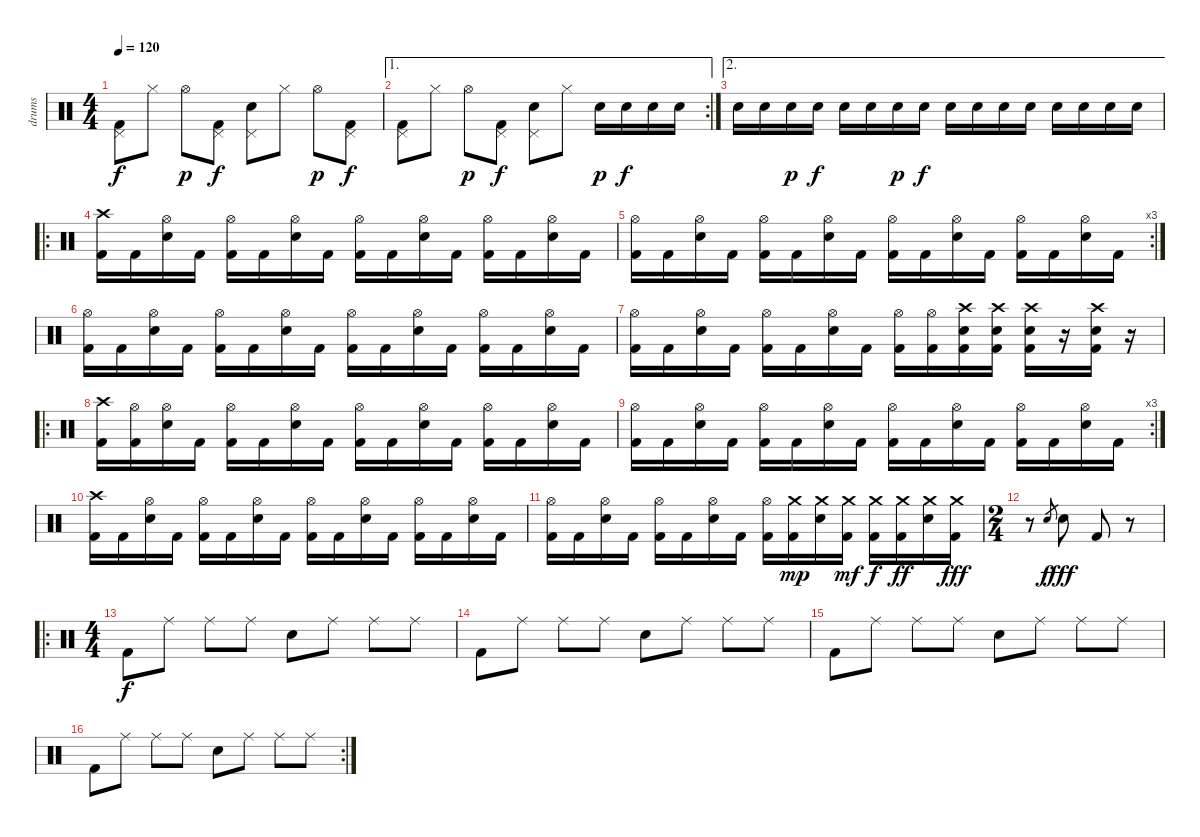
\track ("drums" "drums") {instrument percussion}
\staff {score}
\articulation defaults
\ts (4 4)
\tempo 120
\clef neutral
\ks c
("Pedal Hi-Hat (hit)" "Kick (hit) 2").8{dy f} "Hi-Hat (closed)".8 "Hi-Hat (open)".8{dy p} ("Pedal Hi-Hat (hit)" "Kick (hit) 2").8{dy f} ("Pedal Hi-Hat (hit)" "Electric Snare (hit)").8 "Hi-Hat (closed)".8 "Hi-Hat (open)".8{dy p} ("Pedal Hi-Hat (hit)" "Kick (hit) 2").8{dy f} |
\ae 1
\rc 2
("Pedal Hi-Hat (hit)" "Kick (hit) 2").8 "Hi-Hat (closed)".8 "Hi-Hat (open)".8{dy p} ("Pedal Hi-Hat (hit)" "Kick (hit) 2").8{dy f} ("Pedal Hi-Hat (hit)" "Electric Snare (hit)").8 "Hi-Hat (closed)".8 "Electric Snare (hit)".16{dy p} "Electric Snare (hit)".16{dy f} "Electric Snare (hit)".16 "Electric Snare (hit)".16 |
\ae 2 "Electric Snare (hit)".16 "Electric Snare (hit)".16 "Electric Snare (hit)".16{dy p} "Electric Snare (hit)".16{dy f} "Electric Snare (hit)".16 "Electric Snare (hit)".16 "Electric Snare (hit)".16{dy p} "Electric Snare (hit)".16{dy f} "Electric Snare (hit)".16 "Electric Snare (hit)".16 "Electric Snare (hit)".16 "Electric Snare (hit)".16 "Electric Snare (hit)".16 "Electric Snare (hit)".16 "Electric Snare (hit)".16 "Electric Snare (hit)".16
|
\ro
("Crash high (hit)" "Kick (hit) 2").16 "Kick (hit) 2".16 ("Hi-Hat (open)" "Electric Snare (hit)").16 "Kick (hit) 2".16 ("Hi-Hat (open)" "Kick (hit) 2").16 "Kick (hit) 2".16 ("Hi-Hat (open)" "Electric Snare (hit)").16 "Kick (hit) 2".16 ("Hi-Hat (open)" "Kick (hit) 2").16 "Kick (hit) 2".16 ("Hi-Hat (open)" "Electric Snare (hit)").16 "Kick (hit) 2".16 ("Hi-Hat (open)" "Kick (hit) 2").16 "Kick (hit) 2".16 ("Hi-Hat (open)" "Electric Snare (hit)").16 "Kick (hit) 2".16 |
\rc 3
("Hi-Hat (open)" "Kick (hit) 2").16 "Kick (hit) 2".16 ("Hi-Hat (open)" "Electric Snare (hit)").16 "Kick (hit) 2".16 ("Hi-Hat (open)" "Kick (hit) 2").16 "Kick (hit) 2".16 ("Hi-Hat (open)" "Electric Snare (hit)").16 "Kick (hit) 2".16 ("Hi-Hat (open)" "Kick (hit) 2").16 "Kick (hit) 2".16 ("Hi-Hat (open)" "Electric Snare (hit)").16 "Kick (hit) 2".16 ("Hi-Hat (open)" "Kick (hit) 2").16 "Kick (hit) 2".16 ("Hi-Hat (open)" "Electric Snare (hit)").16 "Kick (hit) 2".16 |
("Hi-Hat (open)" "Kick (hit) 2").16 "Kick (hit) 2".16 ("Hi-Hat (open)" "Electric Snare (hit)").16 "Kick (hit) 2".16 ("Hi-Hat (open)" "Kick (hit) 2").16 "Kick (hit) 2".16 ("Hi-Hat (open)" "Electric Snare (hit)").16 "Kick (hit) 2".16 ("Hi-Hat (open)" "Kick (hit) 2").16 "Kick (hit) 2".16 ("Hi-Hat (open)" "Electric Snare (hit)").16 "Kick (hit) 2".16 ("Hi-Hat (open)" "Kick (hit) 2").16 "Kick (hit) 2".16 ("Hi-Hat (open)" "Electric Snare (hit)").16 "Kick (hit) 2".16 |
("Hi-Hat (open)" "Kick (hit) 2").16 "Kick (hit) 2".16 ("Hi-Hat (open)" "Electric Snare (hit)").16 "Kick (hit) 2".16 ("Hi-Hat (open)" "Kick (hit) 2").16 "Kick (hit) 2".16 ("Hi-Hat (open)" "Electric Snare (hit)").16 "Kick (hit) 2".16 ("Hi-Hat (open)" "Kick (hit) 2").16 ("Hi-Hat (open)" "Kick (hit) 2").16 ("Crash high (hit)" "Kick (hit) 2" "Electric Snare (hit)").16 ("Crash high (hit)" "Kick (hit) 2" "Electric Snare (hit)").16 ("Crash high (hit)" "Kick (hit) 2" "Electric Snare (hit)").16 r.16 ("Crash high (hit)" "Kick (hit) 2" "Electric Snare (hit)").16 r.16 |
\ro
("Crash high (hit)" "Kick (hit) 2").16 ("Hi-Hat (open)" "Kick (hit) 2").16 ("Hi-Hat (open)" "Electric Snare (hit)").16 "Kick (hit) 2".16 ("Hi-Hat (open)" "Kick (hit) 2").16 "Kick (hit) 2".16 ("Hi-Hat (open)" "Electric Snare (hit)").16 "Kick (hit) 2".16 ("Hi-Hat (open)" "Kick (hit) 2").16 "Kick (hit) 2".16 ("Hi-Hat (open)" "Electric Snare (hit)").16 "Kick (hit) 2".16 ("Hi-Hat (open)" "Kick (hit) 2").16 "Kick (hit) 2".16 ("Hi-Hat (open)" "Electric Snare (hit)").16 "Kick (hit) 2".16 |
\rc 3
("Hi-Hat (open)" "Kick (hit) 2").16 "Kick (hit) 2".16 ("Hi-Hat (open)" "Electric Snare (hit)").16 "Kick (hit) 2".16 ("Hi-Hat (open)" "Kick (hit) 2").16 "Kick (hit) 2".16 ("Hi-Hat (open)" "Electric Snare (hit)").16 "Kick (hit) 2".16 ("Hi-Hat (open)" "Kick (hit) 2").16 "Kick (hit) 2".16 ("Hi-Hat (open)" "Electric Snare (hit)").16 "Kick (hit) 2".16 ("Hi-Hat (open)" "Kick (hit) 2").16 "Kick (hit) 2".16 ("Hi-Hat (open)" "Electric Snare (hit)").16 "Kick (hit) 2".16 |
("Crash high (hit)" "Kick (hit) 2").16 "Kick (hit) 2".16 ("Hi-Hat (open)" "Electric Snare (hit)").16 "Kick (hit) 2".16 ("Hi-Hat (open)" "Kick (hit) 2").16 "Kick (hit) 2".16 ("Hi-Hat (open)" "Electric Snare (hit)").16 "Kick (hit) 2".16 ("Hi-Hat (open)" "Kick (hit) 2").16 "Kick (hit) 2".16 ("Hi-Hat (open)" "Electric Snare (hit)").16 "Kick (hit) 2".16 ("Hi-Hat (open)" "Kick (hit) 2").16 "Kick (hit) 2".16 ("Hi-Hat (open)" "Electric Snare (hit)").16 "Kick (hit) 2".16 |
("Hi-Hat (open)" "Kick (hit) 2").16 "Kick (hit) 2".16 ("Hi-Hat (open)" "Electric Snare (hit)").16 "Kick (hit) 2".16 ("Hi-Hat (open)" "Kick (hit) 2").16 "Kick (hit) 2".16 ("Hi-Hat (open)" "Electric Snare (hit)").16 "Kick (hit) 2".16 ("Hi-Hat (open)" "Kick (hit) 2").16 ("Crash medium (hit)" "Kick (hit) 2").16{dy mp} ("Crash medium (hit)" "Electric Snare (hit)").16 ("Crash medium (hit)" "Kick (hit) 2").16{dy mf} ("Crash medium (hit)" "Kick (hit) 2").16{dy f} ("Crash medium (hit)" "Kick (hit) 2").16{dy ff} ("Crash medium (hit)" "Electric Snare (hit)").16 ("Crash medium (hit)" "Kick (hit) 2").16{dy fff} |
\ts (2 4)
r.8 "Electric Snare (hit)".8{gr dy f} "Electric Snare (hit)".8{dy fff} "Kick (hit) 2".8 r.8 |
\ro
\ts (4 4)
"Kick (hit) 2".8{dy f} "Ride (middle)".8 "Ride (middle)".8 "Ride (middle)".8 "Electric Snare (hit)".8 "Ride (middle)".8 "Ride (middle)".8 "Ride (middle)".8 |
"Kick (hit) 2".8 "Ride (middle)".8 "Ride (middle)".8 "Ride (middle)".8 "Electric Snare (hit)".8 "Ride (middle)".8 "Ride (middle)".8 "Ride (middle)".8 |
"Kick (hit) 2".8 "Ride (middle)".8 "Ride (middle)".8 "Ride (middle)".8 "Electric Snare (hit)".8 "Ride (middle)".8 "Ride (middle)".8 "Ride (middle)".8 |
\rc 2 "Kick (hit) 2".8 "Ride (middle)".8 "Ride (middle)".8 "Ride (middle)".8 "Electric Snare (hit)".8 "Ride (middle)".8 "Ride (middle)".8 "Ride (middle)".8
